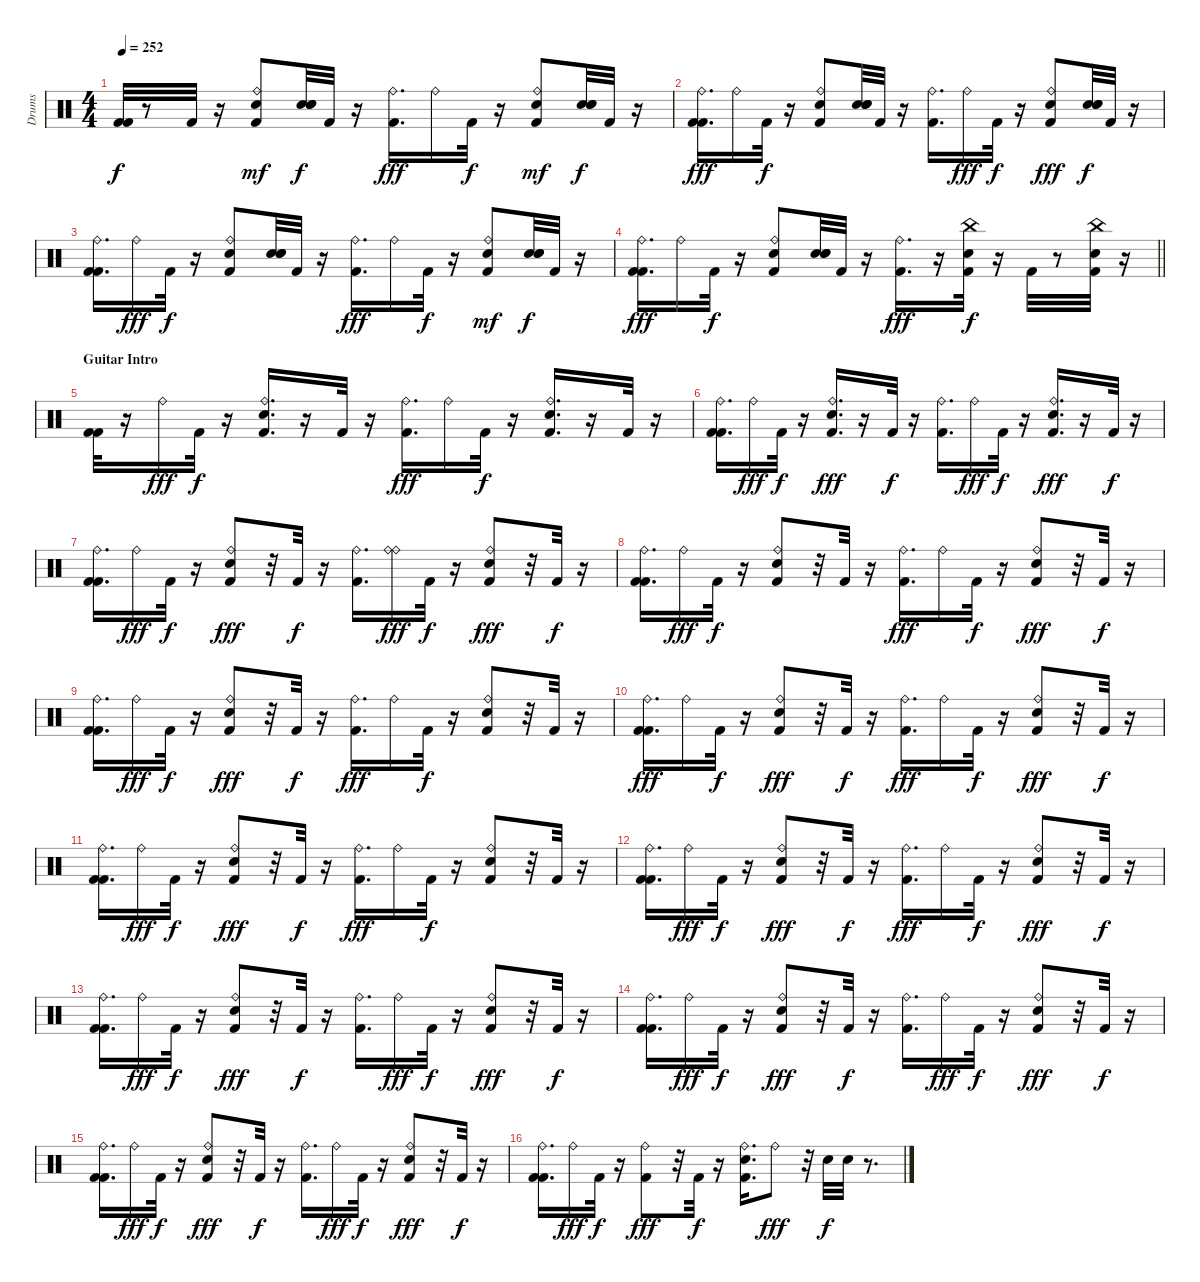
\track ("Drums" "Drums") {instrument percussion}
\staff {score}
\articulation defaults
\ts (4 4)
\tempo 252
\clef neutral
\ks c
("Kick (hit) 2" "Kick (hit) 2").32{dy f} r.8 "Kick (hit) 2".32 r.16 ("Ride (bell)" "Snare (hit) 2" "Kick (hit) 2").8{dy mf} ("Snare (hit)" "Snare (hit)" "Snare (hit)").32{dy f} "Kick (hit) 2".32 r.16 ("Ride (bell)" "Kick (hit) 2").16{d dy fff} "Ride (bell)".16 "Kick (hit) 2".32{dy f} r.16 ("Snare (hit) 2" "Ride (bell)" "Kick (hit) 2").8{dy mf} ("Snare (hit)" "Snare (hit)" "Snare (hit)").32{dy f} "Kick (hit) 2".32 r.16 |
("Ride (bell)" "Kick (hit) 2" "Kick (hit) 2").16{d dy fff} "Ride (bell)".16 "Kick (hit) 2".32{dy f} r.16 ("Kick (hit) 2" "Ride (bell)" "Snare (hit) 2").8 ("Snare (hit)" "Snare (hit)" "Snare (hit)").32 "Kick (hit) 2".32 r.16 ("Kick (hit) 2" "Ride (bell)").16{d} "Ride (bell)".16{dy fff} "Kick (hit) 2".32{dy f} r.16 ("Ride (bell)" "Kick (hit) 2" "Snare (hit) 2").8{dy fff} ("Snare (hit)" "Snare (hit)" "Snare (hit)").32{dy f} "Kick (hit) 2".32 r.16 |
("Kick (hit) 2" "Kick (hit) 2" "Ride (bell)").16{d} "Ride (bell)".16{dy fff} "Kick (hit) 2".32{dy f} r.16 ("Kick (hit) 2" "Snare (hit) 2" "Ride (bell)").8 ("Snare (hit)" "Snare (hit)" "Snare (hit)").32 "Kick (hit) 2".32 r.16 ("Ride (bell)" "Kick (hit) 2").16{d dy fff} "Ride (bell)".16 "Kick (hit) 2".32{dy f} r.16 ("Snare (hit) 2" "Kick (hit) 2" "Ride (bell)").8{dy mf} ("Snare (hit)" "Snare (hit)" "Snare (hit)").32{dy f} "Kick (hit) 2".32 r.16 |
\barLineRight lightlight
("Ride (bell)" "Kick (hit) 2" "Kick (hit) 2").16{d dy fff} "Ride (bell)".16 "Kick (hit) 2".32{dy f} r.16 ("Kick (hit) 2" "Snare (hit) 2" "Ride (bell)").8 ("Snare (hit)" "Snare (hit)" "Snare (hit)").32 "Kick (hit) 2".32 r.16 ("Ride (bell)" "Kick (hit) 2").16{d dy fff} r.16 ("Kick (hit) 2" "Snare (hit) 2" "China (hit)").32{dy f} r.16 "Kick (hit) 2".32 r.8 ("Kick (hit) 2" "Snare (hit) 2" "China (hit)").32 r.16 |
\section ("" "Guitar Intro")
("Kick (hit) 2" "Kick (hit) 2").32 r.16 "Ride (bell)".16{dy fff} "Kick (hit) 2".32{dy f} r.16 ("Kick (hit) 2" "Snare (hit) 2" "Ride (bell)").16{d} r.16 "Kick (hit) 2".32 r.16 ("Ride (bell)" "Kick (hit) 2").16{d dy fff} "Ride (bell)".16 "Kick (hit) 2".32{dy f} r.16 ("Snare (hit) 2" "Kick (hit) 2" "Ride (bell)").16{d} r.16 "Kick (hit) 2".32 r.16 |
("Kick (hit) 2" "Ride (bell)" "Kick (hit) 2").16{d} "Ride (bell)".16{dy fff} "Kick (hit) 2".32{dy f} r.16 ("Ride (bell)" "Snare (hit) 2" "Kick (hit) 2").16{d dy fff} r.16 "Kick (hit) 2".32{dy f} r.16 ("Kick (hit) 2" "Ride (bell)").16{d} "Ride (bell)".16{dy fff} "Kick (hit) 2".32{dy f} r.16 ("Snare (hit) 2" "Kick (hit) 2" "Ride (bell)").16{d dy fff} r.16 "Kick (hit) 2".32{dy f} r.16 |
("Kick (hit) 2" "Kick (hit) 2" "Ride (bell)").16{d} "Ride (bell)".16{dy fff} "Kick (hit) 2".32{dy f} r.16 ("Ride (bell)" "Snare (hit) 2" "Kick (hit) 2").8{dy fff} r.32 "Kick (hit) 2".32{dy f} r.16 ("Kick (hit) 2" "Ride (bell)").16{d} ("Ride (bell)" "Ride (bell)").16{dy fff} "Kick (hit) 2".32{dy f} r.16 ("Snare (hit) 2" "Ride (bell)" "Kick (hit) 2").8{dy fff} r.32 "Kick (hit) 2".32{dy f} r.16 |
("Kick (hit) 2" "Ride (bell)" "Kick (hit) 2").16{d} "Ride (bell)".16{dy fff} "Kick (hit) 2".32{dy f} r.16 ("Kick (hit) 2" "Snare (hit) 2" "Ride (bell)").8 r.32 "Kick (hit) 2".32 r.16 ("Ride (bell)" "Kick (hit) 2").16{d dy fff} "Ride (bell)".16 "Kick (hit) 2".32{dy f} r.16 ("Snare (hit) 2" "Ride (bell)" "Kick (hit) 2").8{dy fff} r.32 "Kick (hit) 2".32{dy f} r.16 |
("Kick (hit) 2" "Ride (bell)" "Kick (hit) 2").16{d} "Ride (bell)".16{dy fff} "Kick (hit) 2".32{dy f} r.16 ("Ride (bell)" "Kick (hit) 2" "Snare (hit) 2").8{dy fff} r.32 "Kick (hit) 2".32{dy f} r.16 ("Ride (bell)" "Kick (hit) 2").16{d dy fff} "Ride (bell)".16 "Kick (hit) 2".32{dy f} r.16 ("Kick (hit) 2" "Ride (bell)" "Snare (hit) 2").8 r.32 "Kick (hit) 2".32 r.16 |
("Ride (bell)" "Kick (hit) 2" "Kick (hit) 2").16{d dy fff} "Ride (bell)".16 "Kick (hit) 2".32{dy f} r.16 ("Ride (bell)" "Snare (hit) 2" "Kick (hit) 2").8{dy fff} r.32 "Kick (hit) 2".32{dy f} r.16 ("Ride (bell)" "Kick (hit) 2").16{d dy fff} "Ride (bell)".16 "Kick (hit) 2".32{dy f} r.16 ("Snare (hit) 2" "Ride (bell)" "Kick (hit) 2").8{dy fff} r.32 "Kick (hit) 2".32{dy f} r.16 |
("Kick (hit) 2" "Kick (hit) 2" "Ride (bell)").16{d} "Ride (bell)".16{dy fff} "Kick (hit) 2".32{dy f} r.16 ("Ride (bell)" "Kick (hit) 2" "Snare (hit) 2").8{dy fff} r.32 "Kick (hit) 2".32{dy f} r.16 ("Ride (bell)" "Kick (hit) 2").16{d dy fff} "Ride (bell)".16 "Kick (hit) 2".32{dy f} r.16 ("Kick (hit) 2" "Ride (bell)" "Snare (hit) 2").8 r.32 "Kick (hit) 2".32 r.16 |
("Kick (hit) 2" "Ride (bell)" "Kick (hit) 2").16{d} "Ride (bell)".16{dy fff} "Kick (hit) 2".32{dy f} r.16 ("Ride (bell)" "Kick (hit) 2" "Snare (hit) 2").8{dy fff} r.32 "Kick (hit) 2".32{dy f} r.16 ("Ride (bell)" "Kick (hit) 2").16{d dy fff} "Ride (bell)".16 "Kick (hit) 2".32{dy f} r.16 ("Ride (bell)" "Snare (hit) 2" "Kick (hit) 2").8{dy fff} r.32 "Kick (hit) 2".32{dy f} r.16 |
("Kick (hit) 2" "Kick (hit) 2" "Ride (bell)").16{d} "Ride (bell)".16{dy fff} "Kick (hit) 2".32{dy f} r.16 ("Snare (hit) 2" "Kick (hit) 2" "Ride (bell)").8{dy fff} r.32 "Kick (hit) 2".32{dy f} r.16 ("Kick (hit) 2" "Ride (bell)").16{d} "Ride (bell)".16{dy fff} "Kick (hit) 2".32{dy f} r.16 ("Snare (hit) 2" "Ride (bell)" "Kick (hit) 2").8{dy fff} r.32 "Kick (hit) 2".32{dy f} r.16 |
("Kick (hit) 2" "Kick (hit) 2" "Ride (bell)").16{d} "Ride (bell)".16{dy fff} "Kick (hit) 2".32{dy f} r.16 ("Ride (bell)" "Kick (hit) 2" "Snare (hit) 2").8{dy fff} r.32 "Kick (hit) 2".32{dy f} r.16 ("Kick (hit) 2" "Ride (bell)").16{d} "Ride (bell)".16{dy fff} "Kick (hit) 2".32{dy f} r.16 ("Ride (bell)" "Snare (hit) 2" "Kick (hit) 2").8{dy fff} r.32 "Kick (hit) 2".32{dy f} r.16 |
("Kick (hit) 2" "Kick (hit) 2" "Ride (bell)").16{d} "Ride (bell)".16{dy fff} "Kick (hit) 2".32{dy f} r.16 ("Snare (hit) 2" "Ride (bell)" "Kick (hit) 2").8{dy fff} r.32 "Kick (hit) 2".32{dy f} r.16 ("Kick (hit) 2" "Ride (bell)").16{d} "Ride (bell)".16{dy fff} "Kick (hit) 2".32{dy f} r.16 ("Snare (hit) 2" "Kick (hit) 2" "Ride (bell)").8{dy fff} r.32 "Kick (hit) 2".32{dy f} r.16 |
("Kick (hit) 2" "Ride (bell)" "Kick (hit) 2").16{d} "Ride (bell)".16{dy fff} "Kick (hit) 2".32{dy f} r.16 ("Ride (bell)" "Kick (hit) 2").8{dy fff} r.32 "Kick (hit) 2".32{dy f} r.16 ("Kick (hit) 2" "Ride (bell)" "Snare (hit) 2").16{d} "Ride (bell)".8{dy fff} r.32 "Snare (hit) 2".32{dy f} "Snare (hit) 2".32 r.8{d}
